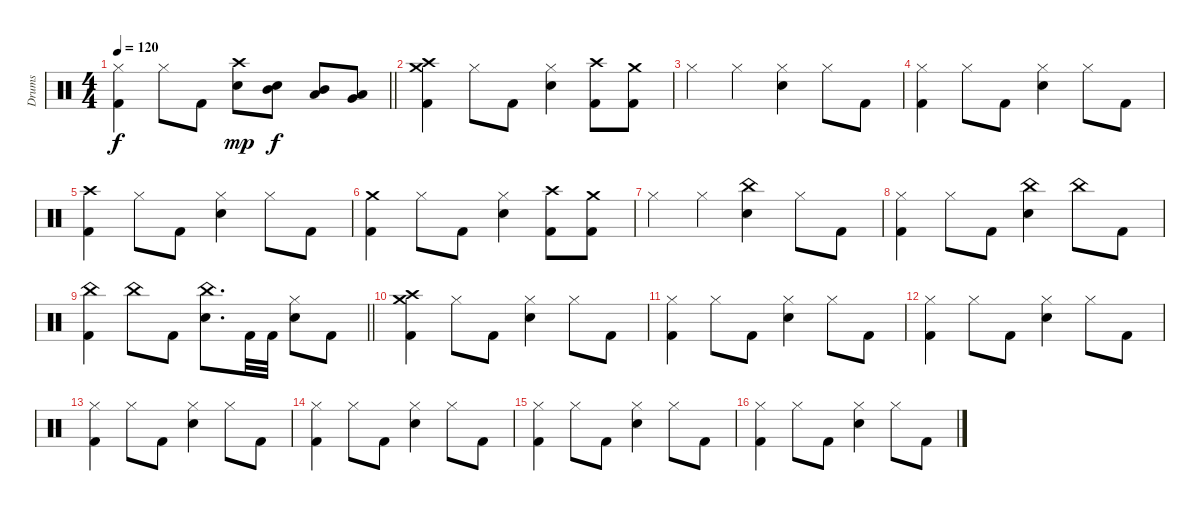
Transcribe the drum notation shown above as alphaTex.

\track ("Drums" "Drums") {instrument percussion}
\staff {score}
\articulation defaults
\ts (4 4)
\tempo 120
\clef neutral
\barLineRight lightlight
\ks c
("Hi-Hat (closed)" "Kick (hit) 2").4{dy f} "Hi-Hat (closed)".8 "Kick (hit) 2".8 ("Crash high (hit)" "Electric Snare (hit)").8{dy mp} ("Mid Tom (hit)" "Electric Snare (hit)").8{dy f} ("Mid Tom (hit)" "Low Tom (hit)").8 ("Low Tom (hit)" "Very Low Tom (hit)").8 |
("Crash medium (hit)" "Crash high (hit)" "Kick (hit) 2").4 "Hi-Hat (closed)".8 "Kick (hit) 2".8 ("Hi-Hat (closed)" "Electric Snare (hit)").4 ("Crash high (hit)" "Kick (hit) 2").8 ("Crash medium (hit)" "Kick (hit) 2").8 |
"Hi-Hat (closed)".4 "Hi-Hat (closed)".4 ("Hi-Hat (closed)" "Electric Snare (hit)").4 "Hi-Hat (closed)".8 "Kick (hit) 2".8 |
("Hi-Hat (closed)" "Kick (hit) 2").4 "Hi-Hat (closed)".8 "Kick (hit) 2".8 ("Hi-Hat (closed)" "Electric Snare (hit)").4 "Hi-Hat (closed)".8 "Kick (hit) 2".8 |
("Crash high (hit)" "Kick (hit) 2").4 "Hi-Hat (closed)".8 "Kick (hit) 2".8 ("Hi-Hat (closed)" "Electric Snare (hit)").4 "Hi-Hat (closed)".8 "Kick (hit) 2".8 |
("Crash medium (hit)" "Kick (hit) 2").4 "Hi-Hat (closed)".8 "Kick (hit) 2".8 ("Hi-Hat (closed)" "Electric Snare (hit)").4 ("Crash high (hit)" "Kick (hit) 2").8 ("Crash medium (hit)" "Kick (hit) 2").8 |
"Hi-Hat (closed)".4 "Hi-Hat (closed)".4 ("China (hit)" "Electric Snare (hit)").4 "Hi-Hat (closed)".8 "Kick (hit) 2".8 |
("Hi-Hat (closed)" "Kick (hit) 2").4 "Hi-Hat (closed)".8 "Kick (hit) 2".8 ("China (hit)" "Electric Snare (hit)").4 "China (hit)".8 "Kick (hit) 2".8 |
\barLineRight lightlight
("China (hit)" "Kick (hit) 2").4 "China (hit)".8 "Kick (hit) 2".8 ("China (hit)" "Electric Snare (hit)").8{d} "Kick (hit) 2".32 "Kick (hit) 2".32 ("Hi-Hat (closed)" "Electric Snare (hit)").8 "Kick (hit) 2".8 |
("Crash high (hit)" "Crash medium (hit)" "Kick (hit) 2").4 "Hi-Hat (closed)".8 "Kick (hit) 2".8 ("Hi-Hat (closed)" "Electric Snare (hit)").4 "Hi-Hat (closed)".8 "Kick (hit) 2".8 |
("Hi-Hat (closed)" "Kick (hit) 2").4 "Hi-Hat (closed)".8 "Kick (hit) 2".8 ("Hi-Hat (closed)" "Electric Snare (hit)").4 "Hi-Hat (closed)".8 "Kick (hit) 2".8 |
("Hi-Hat (closed)" "Kick (hit) 2").4 "Hi-Hat (closed)".8 "Kick (hit) 2".8 ("Hi-Hat (closed)" "Electric Snare (hit)").4 "Hi-Hat (closed)".8 "Kick (hit) 2".8 |
("Hi-Hat (closed)" "Kick (hit) 2").4 "Hi-Hat (closed)".8 "Kick (hit) 2".8 ("Hi-Hat (closed)" "Electric Snare (hit)").4 "Hi-Hat (closed)".8 "Kick (hit) 2".8 |
("Hi-Hat (closed)" "Kick (hit) 2").4 "Hi-Hat (closed)".8 "Kick (hit) 2".8 ("Hi-Hat (closed)" "Electric Snare (hit)").4 "Hi-Hat (closed)".8 "Kick (hit) 2".8 |
("Hi-Hat (closed)" "Kick (hit) 2").4 "Hi-Hat (closed)".8 "Kick (hit) 2".8 ("Hi-Hat (closed)" "Electric Snare (hit)").4 "Hi-Hat (closed)".8 "Kick (hit) 2".8 |
("Hi-Hat (closed)" "Kick (hit) 2").4 "Hi-Hat (closed)".8 "Kick (hit) 2".8 ("Hi-Hat (closed)" "Electric Snare (hit)").4 "Hi-Hat (closed)".8 "Kick (hit) 2".8
